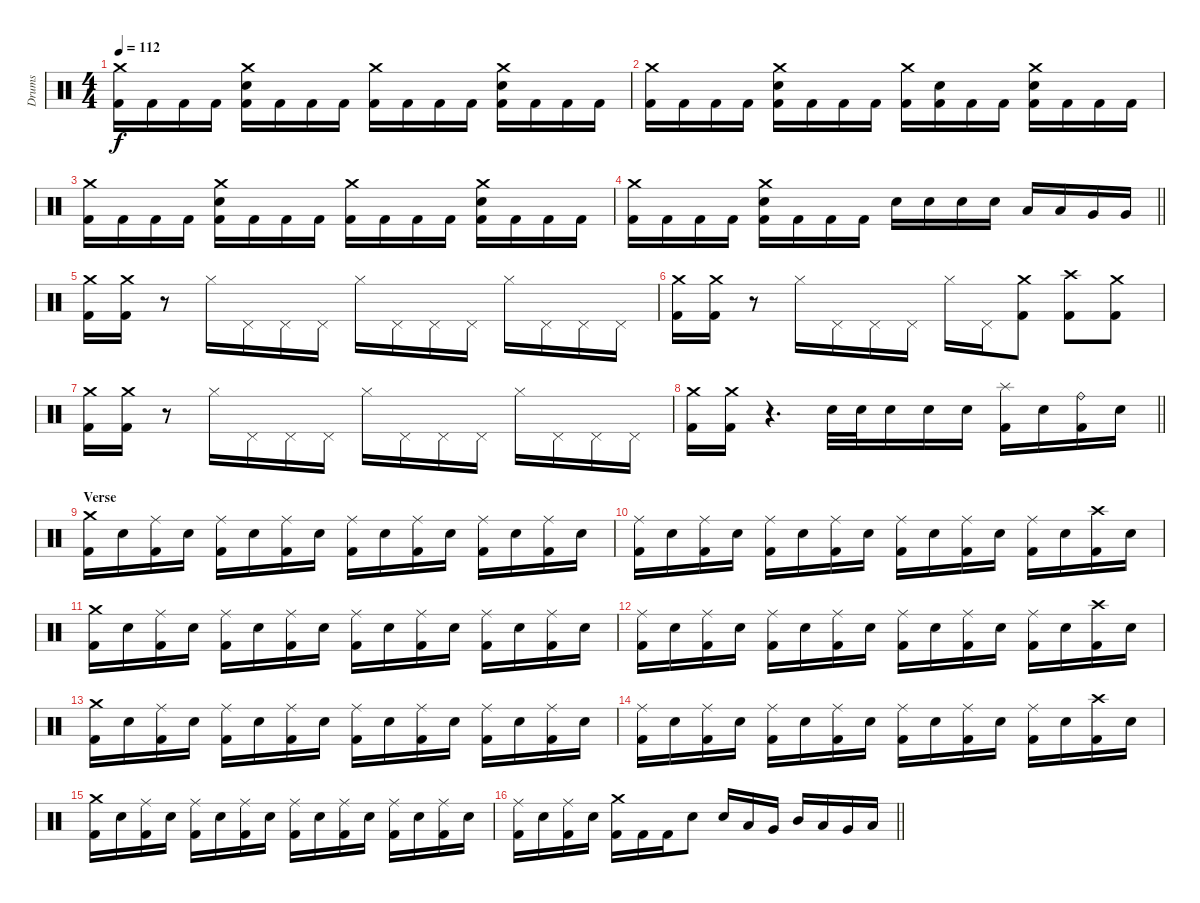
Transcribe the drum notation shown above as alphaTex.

\track ("Drums" "Drums") {instrument percussion}
\staff {score}
\articulation defaults
\ts (4 4)
\section ("" "")
\tempo 112
\clef neutral
\ks c
("Crash medium (hit)" "Kick (hit) 2").16{dy f} "Kick (hit) 2".16 "Kick (hit) 2".16 "Kick (hit) 2".16 ("Crash medium (hit)" "Electric Snare (hit)" "Kick (hit) 2").16 "Kick (hit) 2".16 "Kick (hit) 2".16 "Kick (hit) 2".16 ("Crash medium (hit)" "Kick (hit) 2").16 "Kick (hit) 2".16 "Kick (hit) 2".16 "Kick (hit) 2".16 ("Crash medium (hit)" "Electric Snare (hit)" "Kick (hit) 2").16 "Kick (hit) 2".16 "Kick (hit) 2".16 "Kick (hit) 2".16 |
("Crash medium (hit)" "Kick (hit) 2").16 "Kick (hit) 2".16 "Kick (hit) 2".16 "Kick (hit) 2".16 ("Crash medium (hit)" "Electric Snare (hit)" "Kick (hit) 2").16 "Kick (hit) 2".16 "Kick (hit) 2".16 "Kick (hit) 2".16 ("Crash medium (hit)" "Kick (hit) 2").16 ("Electric Snare (hit)" "Kick (hit) 2").16 "Kick (hit) 2".16 "Kick (hit) 2".16 ("Crash medium (hit)" "Electric Snare (hit)" "Kick (hit) 2").16 "Kick (hit) 2".16 "Kick (hit) 2".16 "Kick (hit) 2".16 |
("Crash medium (hit)" "Kick (hit) 2").16 "Kick (hit) 2".16 "Kick (hit) 2".16 "Kick (hit) 2".16 ("Crash medium (hit)" "Electric Snare (hit)" "Kick (hit) 2").16 "Kick (hit) 2".16 "Kick (hit) 2".16 "Kick (hit) 2".16 ("Crash medium (hit)" "Kick (hit) 2").16 "Kick (hit) 2".16 "Kick (hit) 2".16 "Kick (hit) 2".16 ("Crash medium (hit)" "Electric Snare (hit)" "Kick (hit) 2").16 "Kick (hit) 2".16 "Kick (hit) 2".16 "Kick (hit) 2".16 |
\barLineRight lightlight
("Crash medium (hit)" "Kick (hit) 2").16 "Kick (hit) 2".16 "Kick (hit) 2".16 "Kick (hit) 2".16 ("Crash medium (hit)" "Electric Snare (hit)" "Kick (hit) 2").16 "Kick (hit) 2".16 "Kick (hit) 2".16 "Kick (hit) 2".16 "Electric Snare (hit)".16 "Electric Snare (hit)".16 "Electric Snare (hit)".16 "Electric Snare (hit)".16 "Low Tom (hit)".16 "Low Tom (hit)".16 "Very Low Tom (hit)".16 "Very Low Tom (hit)".16 |
\section ("" "")
("Crash medium (hit)" "Kick (hit) 2").16 ("Crash medium (hit)" "Kick (hit) 2").16 r.8 "Hi-Hat (closed)".16 "Pedal Hi-Hat (hit)".16 "Pedal Hi-Hat (hit)".16 "Pedal Hi-Hat (hit)".16 "Hi-Hat (closed)".16 "Pedal Hi-Hat (hit)".16 "Pedal Hi-Hat (hit)".16 "Pedal Hi-Hat (hit)".16 "Hi-Hat (closed)".16 "Pedal Hi-Hat (hit)".16 "Pedal Hi-Hat (hit)".16 "Pedal Hi-Hat (hit)".16 |
("Crash medium (hit)" "Kick (hit) 2").16 ("Crash medium (hit)" "Kick (hit) 2").16 r.8 "Hi-Hat (closed)".16 "Pedal Hi-Hat (hit)".16 "Pedal Hi-Hat (hit)".16 "Pedal Hi-Hat (hit)".16 "Hi-Hat (closed)".16 "Pedal Hi-Hat (hit)".16 ("Crash medium (hit)" "Kick (hit) 2").8 ("Crash high (hit)" "Kick (hit) 2").8 ("Crash medium (hit)" "Kick (hit) 2").8 |
("Crash medium (hit)" "Kick (hit) 2").16 ("Crash medium (hit)" "Kick (hit) 2").16 r.8 "Hi-Hat (closed)".16 "Pedal Hi-Hat (hit)".16 "Pedal Hi-Hat (hit)".16 "Pedal Hi-Hat (hit)".16 "Hi-Hat (closed)".16 "Pedal Hi-Hat (hit)".16 "Pedal Hi-Hat (hit)".16 "Pedal Hi-Hat (hit)".16 "Hi-Hat (closed)".16 "Pedal Hi-Hat (hit)".16 "Pedal Hi-Hat (hit)".16 "Pedal Hi-Hat (hit)".16 |
\barLineRight lightlight
("Crash medium (hit)" "Kick (hit) 2").16 ("Crash medium (hit)" "Kick (hit) 2").16 r.4{d} "Electric Snare (hit)".32 "Electric Snare (hit)".32 "Electric Snare (hit)".16 "Electric Snare (hit)".16 "Electric Snare (hit)".16 ("Splash (hit)" "Kick (hit) 2").16 "Electric Snare (hit)".16 ("Ride (bell)" "Kick (hit) 2").16 "Electric Snare (hit)".16 |
\section ("" "Verse")
("Crash medium (hit)" "Kick (hit) 2").16 "Electric Snare (hit)".16 ("Ride (middle)" "Kick (hit) 2").16 "Electric Snare (hit)".16 ("Ride (middle)" "Kick (hit) 2").16 "Electric Snare (hit)".16 ("Ride (middle)" "Kick (hit) 2").16 "Electric Snare (hit)".16 ("Ride (middle)" "Kick (hit) 2").16 "Electric Snare (hit)".16 ("Ride (middle)" "Kick (hit) 2").16 "Electric Snare (hit)".16 ("Ride (middle)" "Kick (hit) 2").16 "Electric Snare (hit)".16 ("Ride (middle)" "Kick (hit) 2").16 "Electric Snare (hit)".16 |
("Ride (middle)" "Kick (hit) 2").16 "Electric Snare (hit)".16 ("Ride (middle)" "Kick (hit) 2").16 "Electric Snare (hit)".16 ("Ride (middle)" "Kick (hit) 2").16 "Electric Snare (hit)".16 ("Ride (middle)" "Kick (hit) 2").16 "Electric Snare (hit)".16 ("Ride (middle)" "Kick (hit) 2").16 "Electric Snare (hit)".16 ("Ride (middle)" "Kick (hit) 2").16 "Electric Snare (hit)".16 ("Ride (middle)" "Kick (hit) 2").16 "Electric Snare (hit)".16 ("Crash high (hit)" "Kick (hit) 2").16 "Electric Snare (hit)".16 |
("Crash medium (hit)" "Kick (hit) 2").16 "Electric Snare (hit)".16 ("Ride (middle)" "Kick (hit) 2").16 "Electric Snare (hit)".16 ("Ride (middle)" "Kick (hit) 2").16 "Electric Snare (hit)".16 ("Ride (middle)" "Kick (hit) 2").16 "Electric Snare (hit)".16 ("Ride (middle)" "Kick (hit) 2").16 "Electric Snare (hit)".16 ("Ride (middle)" "Kick (hit) 2").16 "Electric Snare (hit)".16 ("Ride (middle)" "Kick (hit) 2").16 "Electric Snare (hit)".16 ("Ride (middle)" "Kick (hit) 2").16 "Electric Snare (hit)".16 |
("Ride (middle)" "Kick (hit) 2").16 "Electric Snare (hit)".16 ("Ride (middle)" "Kick (hit) 2").16 "Electric Snare (hit)".16 ("Ride (middle)" "Kick (hit) 2").16 "Electric Snare (hit)".16 ("Ride (middle)" "Kick (hit) 2").16 "Electric Snare (hit)".16 ("Ride (middle)" "Kick (hit) 2").16 "Electric Snare (hit)".16 ("Ride (middle)" "Kick (hit) 2").16 "Electric Snare (hit)".16 ("Ride (middle)" "Kick (hit) 2").16 "Electric Snare (hit)".16 ("Crash high (hit)" "Kick (hit) 2").16 "Electric Snare (hit)".16 |
("Crash medium (hit)" "Kick (hit) 2").16 "Electric Snare (hit)".16 ("Ride (middle)" "Kick (hit) 2").16 "Electric Snare (hit)".16 ("Ride (middle)" "Kick (hit) 2").16 "Electric Snare (hit)".16 ("Ride (middle)" "Kick (hit) 2").16 "Electric Snare (hit)".16 ("Ride (middle)" "Kick (hit) 2").16 "Electric Snare (hit)".16 ("Ride (middle)" "Kick (hit) 2").16 "Electric Snare (hit)".16 ("Ride (middle)" "Kick (hit) 2").16 "Electric Snare (hit)".16 ("Ride (middle)" "Kick (hit) 2").16 "Electric Snare (hit)".16 |
("Ride (middle)" "Kick (hit) 2").16 "Electric Snare (hit)".16 ("Ride (middle)" "Kick (hit) 2").16 "Electric Snare (hit)".16 ("Ride (middle)" "Kick (hit) 2").16 "Electric Snare (hit)".16 ("Ride (middle)" "Kick (hit) 2").16 "Electric Snare (hit)".16 ("Ride (middle)" "Kick (hit) 2").16 "Electric Snare (hit)".16 ("Ride (middle)" "Kick (hit) 2").16 "Electric Snare (hit)".16 ("Ride (middle)" "Kick (hit) 2").16 "Electric Snare (hit)".16 ("Crash high (hit)" "Kick (hit) 2").16 "Electric Snare (hit)".16 |
("Crash medium (hit)" "Kick (hit) 2").16 "Electric Snare (hit)".16 ("Ride (middle)" "Kick (hit) 2").16 "Electric Snare (hit)".16 ("Ride (middle)" "Kick (hit) 2").16 "Electric Snare (hit)".16 ("Ride (middle)" "Kick (hit) 2").16 "Electric Snare (hit)".16 ("Ride (middle)" "Kick (hit) 2").16 "Electric Snare (hit)".16 ("Ride (middle)" "Kick (hit) 2").16 "Electric Snare (hit)".16 ("Ride (middle)" "Kick (hit) 2").16 "Electric Snare (hit)".16 ("Ride (middle)" "Kick (hit) 2").16 "Electric Snare (hit)".16 |
\barLineRight lightlight
("Ride (middle)" "Kick (hit) 2").16 "Electric Snare (hit)".16 ("Ride (middle)" "Kick (hit) 2").16 "Electric Snare (hit)".16 ("Crash medium (hit)" "Kick (hit) 2").16 "Kick (hit) 2".16 "Kick (hit) 2".16 "Electric Snare (hit)".8 "Electric Snare (hit)".16 "Low Tom (hit)".16 "Very Low Tom (hit)".16 "Mid Tom (hit)".16 "Low Tom (hit)".16 "Very Low Tom (hit)".16 "Low Floor Tom (hit)".16
